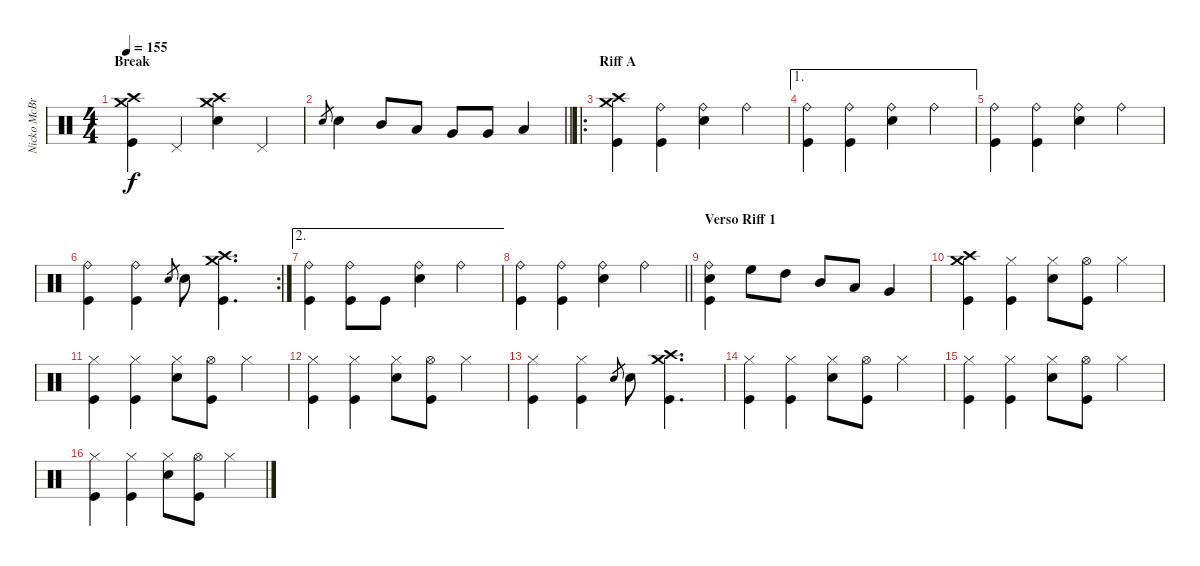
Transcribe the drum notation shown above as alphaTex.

\track ("Nicko McBrain" "Nicko McBr") {instrument percussion}
\staff {score}
\articulation defaults
\ts (4 4)
\section ("" "Break")
\tempo 155
\clef neutral
\ks c
("Crash medium (hit)" "Crash high (hit)" "Kick (hit)").4{dy f} "Pedal Hi-Hat (hit)".4 ("Crash medium (hit)" "Crash high (hit)" "Snare (hit) 2").4 "Pedal Hi-Hat (hit)".4 |
\barLineRight lightlight "Snare (hit) 2".8{gr} "Snare (hit) 2".4 "Mid Tom (hit)".8 "Low Tom (hit)".8 "Very Low Tom (hit)".8 "Very Low Tom (hit)".8 "Low Floor Tom (hit)".4
|
\ro
\section ("" "Riff A")
("Crash medium (hit)" "Crash high (hit)" "Kick (hit)").4 ("Ride (bell)" "Kick (hit)").4 ("Ride (bell)" "Snare (hit) 2").4 "Ride (bell)".4 |
\ae 1
("Ride (bell)" "Kick (hit)").4 ("Ride (bell)" "Kick (hit)").4 ("Ride (bell)" "Snare (hit) 2").4 "Ride (bell)".4 |
("Ride (bell)" "Kick (hit)").4 ("Ride (bell)" "Kick (hit)").4 ("Ride (bell)" "Snare (hit) 2").4 "Ride (bell)".4 |
\rc 2
("Ride (bell)" "Kick (hit)").4 ("Ride (bell)" "Kick (hit)").4 "Snare (hit) 2".8{gr} "Snare (hit) 2".8 ("Crash medium (hit)" "Crash high (hit)" "Kick (hit)").4{d} |
\ae 2
("Ride (bell)" "Kick (hit)").4 ("Ride (bell)" "Kick (hit)").8 "Kick (hit)".8 ("Ride (bell)" "Snare (hit) 2").4 "Ride (bell)".4 |
\barLineRight lightlight
("Ride (bell)" "Kick (hit)").4 ("Ride (bell)" "Kick (hit)").4 ("Ride (bell)" "Snare (hit) 2").4 "Ride (bell)".4 |
\section ("" "Verso Riff 1")
("Ride (bell)" "Snare (hit) 2" "Kick (hit)").4 "High Floor Tom (hit)".8 "High Tom (hit)".8 "Mid Tom (hit)".8 "Low Tom (hit)".8 "Very Low Tom (hit)".4 |
("Crash medium (hit)" "Crash high (hit)" "Kick (hit)").4 ("Hi-Hat (closed)" "Kick (hit)").4 ("Hi-Hat (closed)" "Snare (hit) 2").8 ("Hi-Hat (open)" "Kick (hit)").8 "Hi-Hat (closed)".4 |
("Hi-Hat (closed)" "Kick (hit)").4 ("Hi-Hat (closed)" "Kick (hit)").4 ("Hi-Hat (closed)" "Snare (hit) 2").8 ("Hi-Hat (open)" "Kick (hit)").8 "Hi-Hat (closed)".4 |
("Hi-Hat (closed)" "Kick (hit)").4 ("Hi-Hat (closed)" "Kick (hit)").4 ("Hi-Hat (closed)" "Snare (hit) 2").8 ("Hi-Hat (open)" "Kick (hit)").8 "Hi-Hat (closed)".4 |
("Hi-Hat (closed)" "Kick (hit)").4 ("Hi-Hat (closed)" "Kick (hit)").4 "Snare (hit) 2".8{gr} "Snare (hit) 2".8 ("Crash medium (hit)" "Crash high (hit)" "Kick (hit)").4{d} |
("Hi-Hat (closed)" "Kick (hit)").4 ("Hi-Hat (closed)" "Kick (hit)").4 ("Hi-Hat (closed)" "Snare (hit) 2").8 ("Hi-Hat (open)" "Kick (hit)").8 "Hi-Hat (closed)".4 |
("Hi-Hat (closed)" "Kick (hit)").4 ("Hi-Hat (closed)" "Kick (hit)").4 ("Hi-Hat (closed)" "Snare (hit) 2").8 ("Hi-Hat (open)" "Kick (hit)").8 "Hi-Hat (closed)".4 |
("Hi-Hat (closed)" "Kick (hit)").4 ("Hi-Hat (closed)" "Kick (hit)").4 ("Hi-Hat (closed)" "Snare (hit) 2").8 ("Hi-Hat (open)" "Kick (hit)").8 "Hi-Hat (closed)".4
